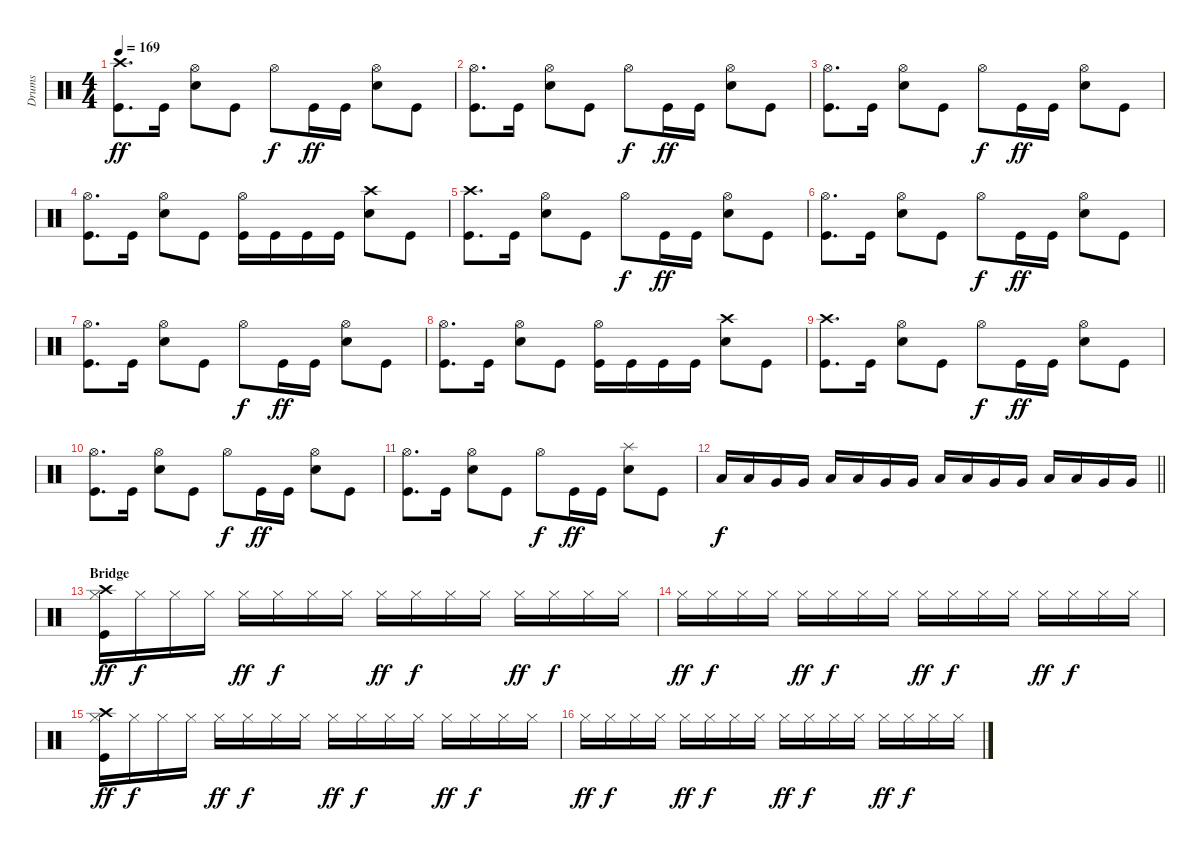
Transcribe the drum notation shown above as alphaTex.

\track ("Drums" "Drums") {instrument percussion}
\staff {score}
\articulation defaults
\ts (4 4)
\tempo 169
\clef neutral
\ks c
("Crash high (hit)" "Kick (hit)").8{d dy ff} "Kick (hit)".16 ("Hi-Hat (open)" "Electric Snare (hit)").8 "Kick (hit)".8 "Hi-Hat (open)".8{dy f} "Kick (hit)".16{dy ff} "Kick (hit)".16 ("Hi-Hat (open)" "Electric Snare (hit)").8 "Kick (hit)".8 |
("Hi-Hat (open)" "Kick (hit)").8{d} "Kick (hit)".16 ("Hi-Hat (open)" "Electric Snare (hit)").8 "Kick (hit)".8 "Hi-Hat (open)".8{dy f} "Kick (hit)".16{dy ff} "Kick (hit)".16 ("Hi-Hat (open)" "Electric Snare (hit)").8 "Kick (hit)".8 |
("Hi-Hat (open)" "Kick (hit)").8{d} "Kick (hit)".16 ("Hi-Hat (open)" "Electric Snare (hit)").8 "Kick (hit)".8 "Hi-Hat (open)".8{dy f} "Kick (hit)".16{dy ff} "Kick (hit)".16 ("Hi-Hat (open)" "Electric Snare (hit)").8 "Kick (hit)".8 |
("Hi-Hat (open)" "Kick (hit)").8{d} "Kick (hit)".16 ("Hi-Hat (open)" "Electric Snare (hit)").8 "Kick (hit)".8 ("Hi-Hat (open)" "Kick (hit)").16 "Kick (hit)".16 "Kick (hit)".16 "Kick (hit)".16 ("Crash high (hit)" "Electric Snare (hit)").8 "Kick (hit)".8 |
("Crash high (hit)" "Kick (hit)").8{d} "Kick (hit)".16 ("Hi-Hat (open)" "Electric Snare (hit)").8 "Kick (hit)".8 "Hi-Hat (open)".8{dy f} "Kick (hit)".16{dy ff} "Kick (hit)".16 ("Hi-Hat (open)" "Electric Snare (hit)").8 "Kick (hit)".8 |
("Hi-Hat (open)" "Kick (hit)").8{d} "Kick (hit)".16 ("Hi-Hat (open)" "Electric Snare (hit)").8 "Kick (hit)".8 "Hi-Hat (open)".8{dy f} "Kick (hit)".16{dy ff} "Kick (hit)".16 ("Hi-Hat (open)" "Electric Snare (hit)").8 "Kick (hit)".8 |
("Hi-Hat (open)" "Kick (hit)").8{d} "Kick (hit)".16 ("Hi-Hat (open)" "Electric Snare (hit)").8 "Kick (hit)".8 "Hi-Hat (open)".8{dy f} "Kick (hit)".16{dy ff} "Kick (hit)".16 ("Hi-Hat (open)" "Electric Snare (hit)").8 "Kick (hit)".8 |
("Hi-Hat (open)" "Kick (hit)").8{d} "Kick (hit)".16 ("Hi-Hat (open)" "Electric Snare (hit)").8 "Kick (hit)".8 ("Hi-Hat (open)" "Kick (hit)").16 "Kick (hit)".16 "Kick (hit)".16 "Kick (hit)".16 ("Crash high (hit)" "Electric Snare (hit)").8 "Kick (hit)".8 |
("Crash high (hit)" "Kick (hit)").8{d} "Kick (hit)".16 ("Hi-Hat (open)" "Electric Snare (hit)").8 "Kick (hit)".8 "Hi-Hat (open)".8{dy f} "Kick (hit)".16{dy ff} "Kick (hit)".16 ("Hi-Hat (open)" "Electric Snare (hit)").8 "Kick (hit)".8 |
("Hi-Hat (open)" "Kick (hit)").8{d} "Kick (hit)".16 ("Hi-Hat (open)" "Electric Snare (hit)").8 "Kick (hit)".8 "Hi-Hat (open)".8{dy f} "Kick (hit)".16{dy ff} "Kick (hit)".16 ("Hi-Hat (open)" "Electric Snare (hit)").8 "Kick (hit)".8 |
("Hi-Hat (open)" "Kick (hit)").8{d} "Kick (hit)".16 ("Hi-Hat (open)" "Electric Snare (hit)").8 "Kick (hit)".8 "Hi-Hat (open)".8{dy f} "Kick (hit)".16{dy ff} "Kick (hit)".16 ("Splash (hit)" "Electric Snare (hit)").8 "Kick (hit)".8 |
\barLineRight lightlight "Low Tom (hit)".16{dy f} "Low Tom (hit)".16 "Very Low Tom (hit)".16 "Very Low Tom (hit)".16 "Low Tom (hit)".16 "Low Tom (hit)".16 "Very Low Tom (hit)".16 "Very Low Tom (hit)".16 "Low Tom (hit)".16 "Low Tom (hit)".16 "Very Low Tom (hit)".16 "Very Low Tom (hit)".16 "Low Tom (hit)".16 "Low Tom (hit)".16 "Very Low Tom (hit)".16 "Very Low Tom (hit)".16
|
\section ("" "Bridge")
("Crash high (hit)" "Hi-Hat (closed)" "Kick (hit)").16{dy ff} "Hi-Hat (closed)".16{dy f} "Hi-Hat (closed)".16 "Hi-Hat (closed)".16 "Hi-Hat (closed)".16{dy ff} "Hi-Hat (closed)".16{dy f} "Hi-Hat (closed)".16 "Hi-Hat (closed)".16 "Hi-Hat (closed)".16{dy ff} "Hi-Hat (closed)".16{dy f} "Hi-Hat (closed)".16 "Hi-Hat (closed)".16 "Hi-Hat (closed)".16{dy ff} "Hi-Hat (closed)".16{dy f} "Hi-Hat (closed)".16 "Hi-Hat (closed)".16 |
"Hi-Hat (closed)".16{dy ff} "Hi-Hat (closed)".16{dy f} "Hi-Hat (closed)".16 "Hi-Hat (closed)".16 "Hi-Hat (closed)".16{dy ff} "Hi-Hat (closed)".16{dy f} "Hi-Hat (closed)".16 "Hi-Hat (closed)".16 "Hi-Hat (closed)".16{dy ff} "Hi-Hat (closed)".16{dy f} "Hi-Hat (closed)".16 "Hi-Hat (closed)".16 "Hi-Hat (closed)".16{dy ff} "Hi-Hat (closed)".16{dy f} "Hi-Hat (closed)".16 "Hi-Hat (closed)".16 |
("Crash high (hit)" "Hi-Hat (closed)" "Kick (hit)").16{dy ff} "Hi-Hat (closed)".16{dy f} "Hi-Hat (closed)".16 "Hi-Hat (closed)".16 "Hi-Hat (closed)".16{dy ff} "Hi-Hat (closed)".16{dy f} "Hi-Hat (closed)".16 "Hi-Hat (closed)".16 "Hi-Hat (closed)".16{dy ff} "Hi-Hat (closed)".16{dy f} "Hi-Hat (closed)".16 "Hi-Hat (closed)".16 "Hi-Hat (closed)".16{dy ff} "Hi-Hat (closed)".16{dy f} "Hi-Hat (closed)".16 "Hi-Hat (closed)".16 |
"Hi-Hat (closed)".16{dy ff} "Hi-Hat (closed)".16{dy f} "Hi-Hat (closed)".16 "Hi-Hat (closed)".16 "Hi-Hat (closed)".16{dy ff} "Hi-Hat (closed)".16{dy f} "Hi-Hat (closed)".16 "Hi-Hat (closed)".16 "Hi-Hat (closed)".16{dy ff} "Hi-Hat (closed)".16{dy f} "Hi-Hat (closed)".16 "Hi-Hat (closed)".16 "Hi-Hat (closed)".16{dy ff} "Hi-Hat (closed)".16{dy f} "Hi-Hat (closed)".16 "Hi-Hat (closed)".16
